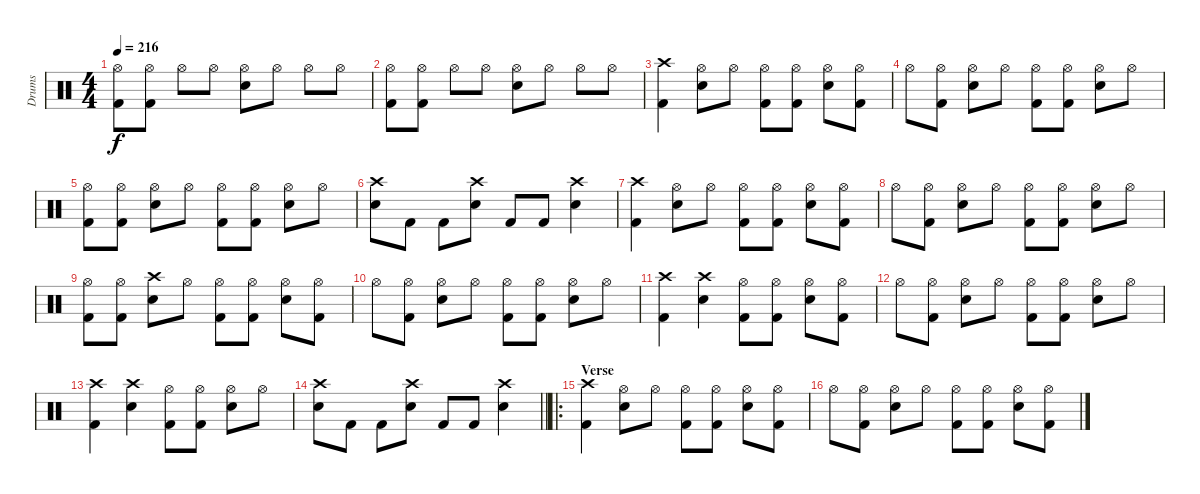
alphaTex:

\track ("Drums" "Drums") {instrument percussion}
\staff {score}
\articulation defaults
\ts (4 4)
\tempo 216
\clef neutral
\ks c
("Hi-Hat (open)" "Kick (hit) 2").8{dy f} ("Hi-Hat (open)" "Kick (hit) 2").8 "Hi-Hat (open)".8 "Hi-Hat (open)".8 ("Hi-Hat (open)" "Electric Snare (hit)").8 "Hi-Hat (open)".8 "Hi-Hat (open)".8 "Hi-Hat (open)".8 |
("Hi-Hat (open)" "Kick (hit) 2").8 ("Hi-Hat (open)" "Kick (hit) 2").8 "Hi-Hat (open)".8 "Hi-Hat (open)".8 ("Hi-Hat (open)" "Electric Snare (hit)").8 "Hi-Hat (open)".8 "Hi-Hat (open)".8 "Hi-Hat (open)".8 |
("Crash high (hit)" "Kick (hit) 2").4 ("Hi-Hat (open)" "Electric Snare (hit)").8 "Hi-Hat (open)".8 ("Hi-Hat (open)" "Kick (hit) 2").8 ("Hi-Hat (open)" "Kick (hit) 2").8 ("Hi-Hat (open)" "Electric Snare (hit)").8 ("Hi-Hat (open)" "Kick (hit) 2").8 |
"Hi-Hat (open)".8 ("Hi-Hat (open)" "Kick (hit) 2").8 ("Hi-Hat (open)" "Electric Snare (hit)").8 "Hi-Hat (open)".8 ("Hi-Hat (open)" "Kick (hit) 2").8 ("Hi-Hat (open)" "Kick (hit) 2").8 ("Hi-Hat (open)" "Electric Snare (hit)").8 "Hi-Hat (open)".8 |
("Hi-Hat (open)" "Kick (hit) 2").8 ("Hi-Hat (open)" "Kick (hit) 2").8 ("Hi-Hat (open)" "Electric Snare (hit)").8 "Hi-Hat (open)".8 ("Hi-Hat (open)" "Kick (hit) 2").8 ("Hi-Hat (open)" "Kick (hit) 2").8 ("Hi-Hat (open)" "Electric Snare (hit)").8 "Hi-Hat (open)".8 |
("Crash high (hit)" "Electric Snare (hit)").8 "Kick (hit) 2".8 "Kick (hit) 2".8 ("Crash high (hit)" "Electric Snare (hit)").8 "Kick (hit) 2".8 "Kick (hit) 2".8 ("Crash high (hit)" "Electric Snare (hit)").4 |
("Crash high (hit)" "Kick (hit) 2").4 ("Hi-Hat (open)" "Electric Snare (hit)").8 "Hi-Hat (open)".8 ("Hi-Hat (open)" "Kick (hit) 2").8 ("Hi-Hat (open)" "Kick (hit) 2").8 ("Hi-Hat (open)" "Electric Snare (hit)").8 ("Hi-Hat (open)" "Kick (hit) 2").8 |
"Hi-Hat (open)".8 ("Hi-Hat (open)" "Kick (hit) 2").8 ("Hi-Hat (open)" "Electric Snare (hit)").8 "Hi-Hat (open)".8 ("Hi-Hat (open)" "Kick (hit) 2").8 ("Hi-Hat (open)" "Kick (hit) 2").8 ("Hi-Hat (open)" "Electric Snare (hit)").8 "Hi-Hat (open)".8 |
("Hi-Hat (open)" "Kick (hit) 2").8 ("Hi-Hat (open)" "Kick (hit) 2").8 ("Crash high (hit)" "Electric Snare (hit)").8 "Hi-Hat (open)".8 ("Hi-Hat (open)" "Kick (hit) 2").8 ("Hi-Hat (open)" "Kick (hit) 2").8 ("Hi-Hat (open)" "Electric Snare (hit)").8 ("Hi-Hat (open)" "Kick (hit) 2").8 |
"Hi-Hat (open)".8 ("Hi-Hat (open)" "Kick (hit) 2").8 ("Hi-Hat (open)" "Electric Snare (hit)").8 "Hi-Hat (open)".8 ("Hi-Hat (open)" "Kick (hit) 2").8 ("Hi-Hat (open)" "Kick (hit) 2").8 ("Hi-Hat (open)" "Electric Snare (hit)").8 "Hi-Hat (open)".8 |
("Crash high (hit)" "Kick (hit) 2").4 ("Crash high (hit)" "Electric Snare (hit)").4 ("Hi-Hat (open)" "Kick (hit) 2").8 ("Hi-Hat (open)" "Kick (hit) 2").8 ("Hi-Hat (open)" "Electric Snare (hit)").8 ("Hi-Hat (open)" "Kick (hit) 2").8 |
"Hi-Hat (open)".8 ("Hi-Hat (open)" "Kick (hit) 2").8 ("Hi-Hat (open)" "Electric Snare (hit)").8 "Hi-Hat (open)".8 ("Hi-Hat (open)" "Kick (hit) 2").8 ("Hi-Hat (open)" "Kick (hit) 2").8 ("Hi-Hat (open)" "Electric Snare (hit)").8 "Hi-Hat (open)".8 |
("Crash high (hit)" "Kick (hit) 2").4 ("Crash high (hit)" "Electric Snare (hit)").4 ("Hi-Hat (open)" "Kick (hit) 2").8 ("Hi-Hat (open)" "Kick (hit) 2").8 ("Hi-Hat (open)" "Electric Snare (hit)").8 "Hi-Hat (open)".8 |
\barLineRight lightlight
("Crash high (hit)" "Electric Snare (hit)").8 "Kick (hit) 2".8 "Kick (hit) 2".8 ("Crash high (hit)" "Electric Snare (hit)").8 "Kick (hit) 2".8 "Kick (hit) 2".8 ("Crash high (hit)" "Electric Snare (hit)").4 |
\ro
\section ("" "Verse")
("Crash high (hit)" "Kick (hit) 2").4 ("Hi-Hat (open)" "Electric Snare (hit)").8 "Hi-Hat (open)".8 ("Hi-Hat (open)" "Kick (hit) 2").8 ("Hi-Hat (open)" "Kick (hit) 2").8 ("Hi-Hat (open)" "Electric Snare (hit)").8 ("Hi-Hat (open)" "Kick (hit) 2").8 |
"Hi-Hat (open)".8 ("Hi-Hat (open)" "Kick (hit) 2").8 ("Hi-Hat (open)" "Electric Snare (hit)").8 "Hi-Hat (open)".8 ("Hi-Hat (open)" "Kick (hit) 2").8 ("Hi-Hat (open)" "Kick (hit) 2").8 ("Hi-Hat (open)" "Electric Snare (hit)").8 ("Hi-Hat (open)" "Kick (hit) 2").8
